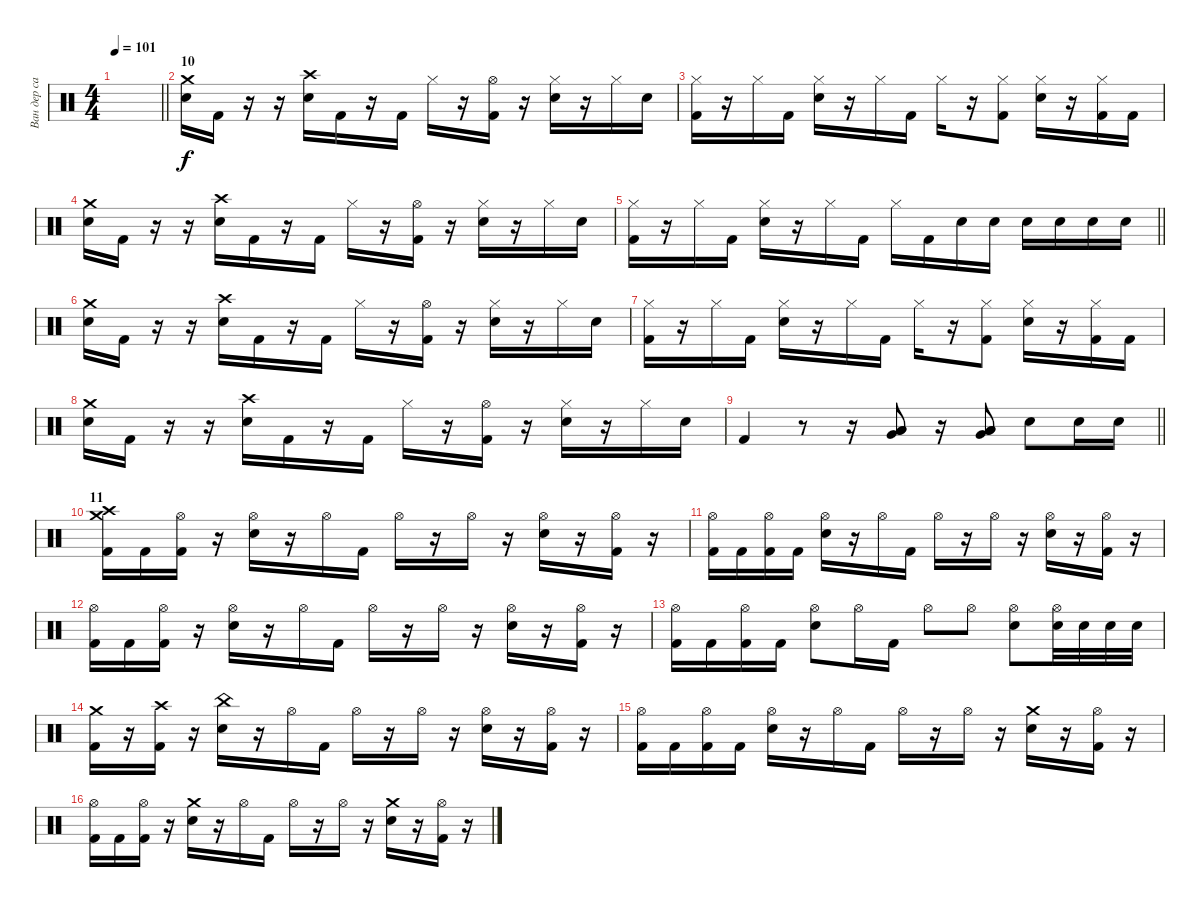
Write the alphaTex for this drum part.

\track ("Ван дер сар" "Ван дер са") {instrument percussion}
\staff {score}
\articulation defaults
\ts (4 4)
\tempo 101
\clef neutral
\barLineRight lightlight
\ks c
|
\section ("" "10")
("Crash medium (hit)" "Snare (hit) 2").16 "Kick (hit) 2".16 r.16 r.16 ("Crash high (hit)" "Snare (hit) 2").16 "Kick (hit) 2".16 r.16 "Kick (hit) 2".16 "Hi-Hat (closed)".16 r.16 ("Hi-Hat (open)" "Kick (hit) 2").16 r.16 ("Hi-Hat (closed)" "Snare (hit) 2").16 r.16 "Hi-Hat (closed)".16 "Snare (hit) 2".16 |
("Hi-Hat (closed)" "Kick (hit) 2").16 r.16 "Hi-Hat (closed)".16 "Kick (hit) 2".16 ("Hi-Hat (closed)" "Snare (hit) 2").16 r.16 "Hi-Hat (closed)".16 "Kick (hit) 2".16 "Hi-Hat (closed)".16 r.16 ("Hi-Hat (closed)" "Kick (hit) 2").8 ("Hi-Hat (closed)" "Snare (hit) 2").16 r.16 ("Hi-Hat (closed)" "Kick (hit) 2").16 "Kick (hit) 2".16 |
("Crash medium (hit)" "Snare (hit) 2").16 "Kick (hit) 2".16 r.16 r.16 ("Crash high (hit)" "Snare (hit) 2").16 "Kick (hit) 2".16 r.16 "Kick (hit) 2".16 "Hi-Hat (closed)".16 r.16 ("Hi-Hat (open)" "Kick (hit) 2").16 r.16 ("Hi-Hat (closed)" "Snare (hit) 2").16 r.16 "Hi-Hat (closed)".16 "Snare (hit) 2".16 |
\barLineRight lightlight
("Hi-Hat (closed)" "Kick (hit) 2").16 r.16 "Hi-Hat (closed)".16 "Kick (hit) 2".16 ("Hi-Hat (closed)" "Snare (hit) 2").16 r.16 "Hi-Hat (closed)".16 "Kick (hit) 2".16 "Hi-Hat (closed)".16 "Kick (hit) 2".16 "Snare (hit) 2".16 "Snare (hit) 2".16 "Snare (hit) 2".16 "Snare (hit) 2".16 "Snare (hit) 2".16 "Snare (hit) 2".16 |
("Crash medium (hit)" "Snare (hit) 2").16 "Kick (hit) 2".16 r.16 r.16 ("Crash high (hit)" "Snare (hit) 2").16 "Kick (hit) 2".16 r.16 "Kick (hit) 2".16 "Hi-Hat (closed)".16 r.16 ("Hi-Hat (open)" "Kick (hit) 2").16 r.16 ("Hi-Hat (closed)" "Snare (hit) 2").16 r.16 "Hi-Hat (closed)".16 "Snare (hit) 2".16 |
("Hi-Hat (closed)" "Kick (hit) 2").16 r.16 "Hi-Hat (closed)".16 "Kick (hit) 2".16 ("Hi-Hat (closed)" "Snare (hit) 2").16 r.16 "Hi-Hat (closed)".16 "Kick (hit) 2".16 "Hi-Hat (closed)".16 r.16 ("Hi-Hat (closed)" "Kick (hit) 2").8 ("Hi-Hat (closed)" "Snare (hit) 2").16 r.16 ("Hi-Hat (closed)" "Kick (hit) 2").16 "Kick (hit) 2".16 |
("Crash medium (hit)" "Snare (hit) 2").16 "Kick (hit) 2".16 r.16 r.16 ("Crash high (hit)" "Snare (hit) 2").16 "Kick (hit) 2".16 r.16 "Kick (hit) 2".16 "Hi-Hat (closed)".16 r.16 ("Hi-Hat (open)" "Kick (hit) 2").16 r.16 ("Hi-Hat (closed)" "Snare (hit) 2").16 r.16 "Hi-Hat (closed)".16 "Snare (hit) 2".16 |
\barLineRight lightlight "Kick (hit) 2".4
r.8 r.16 ("Low Floor Tom (hit)" "Very Low Tom (hit)" "Low Tom (hit)").8 r.16 ("Low Floor Tom (hit)" "Very Low Tom (hit)" "Low Tom (hit)").8 "Snare (hit) 2".8 "Snare (hit) 2".16 "Snare (hit) 2".16 |
\section ("" "11")
("Crash medium (hit)" "Crash high (hit)" "Kick (hit) 2").16 "Kick (hit) 2".16 ("Hi-Hat (open)" "Kick (hit) 2").16 r.16 ("Hi-Hat (open)" "Snare (hit) 2").16 r.16 "Hi-Hat (open)".16 "Kick (hit) 2".16 "Hi-Hat (open)".16 r.16 "Hi-Hat (open)".16 r.16 ("Hi-Hat (open)" "Snare (hit) 2").16 r.16 ("Hi-Hat (open)" "Kick (hit) 2").16 r.16 |
("Hi-Hat (open)" "Kick (hit) 2").16 "Kick (hit) 2".16 ("Hi-Hat (open)" "Kick (hit) 2").16 "Kick (hit) 2".16 ("Hi-Hat (open)" "Snare (hit) 2").16 r.16 "Hi-Hat (open)".16 "Kick (hit) 2".16 "Hi-Hat (open)".16 r.16 "Hi-Hat (open)".16 r.16 ("Hi-Hat (open)" "Snare (hit) 2").16 r.16 ("Hi-Hat (open)" "Kick (hit) 2").16 r.16 |
("Hi-Hat (open)" "Kick (hit) 2").16 "Kick (hit) 2".16 ("Hi-Hat (open)" "Kick (hit) 2").16 r.16 ("Hi-Hat (open)" "Snare (hit) 2").16 r.16 "Hi-Hat (open)".16 "Kick (hit) 2".16 "Hi-Hat (open)".16 r.16 "Hi-Hat (open)".16 r.16 ("Hi-Hat (open)" "Snare (hit) 2").16 r.16 ("Hi-Hat (open)" "Kick (hit) 2").16 r.16 |
("Hi-Hat (open)" "Kick (hit) 2").16 "Kick (hit) 2".16 ("Hi-Hat (open)" "Kick (hit) 2").16 "Kick (hit) 2".16 ("Hi-Hat (open)" "Snare (hit) 2").8 "Hi-Hat (open)".16 "Kick (hit) 2".16 "Hi-Hat (open)".8 "Hi-Hat (open)".8 ("Hi-Hat (open)" "Snare (hit) 2").8 ("Hi-Hat (open)" "Snare (hit) 2").32 "Snare (hit) 2".32 "Snare (hit) 2".32 "Snare (hit) 2".32 |
("Crash medium (hit)" "Kick (hit) 2").16 r.16 ("Crash high (hit)" "Kick (hit) 2").16 r.16 ("China (hit)" "Snare (hit) 2").16 r.16 "Hi-Hat (open)".16 "Kick (hit) 2".16 "Hi-Hat (open)".16 r.16 "Hi-Hat (open)".16 r.16 ("Hi-Hat (open)" "Snare (hit) 2").16 r.16 ("Hi-Hat (open)" "Kick (hit) 2").16 r.16 |
("Hi-Hat (open)" "Kick (hit) 2").16 "Kick (hit) 2".16 ("Hi-Hat (open)" "Kick (hit) 2").16 "Kick (hit) 2".16 ("Hi-Hat (open)" "Snare (hit) 2").16 r.16 "Hi-Hat (open)".16 "Kick (hit) 2".16 "Hi-Hat (open)".16 r.16 "Hi-Hat (open)".16 r.16 ("Crash medium (hit)" "Snare (hit) 2").16 r.16 ("Hi-Hat (open)" "Kick (hit) 2").16 r.16 |
("Hi-Hat (open)" "Kick (hit) 2").16 "Kick (hit) 2".16 ("Hi-Hat (open)" "Kick (hit) 2").16 r.16 ("Crash medium (hit)" "Snare (hit) 2").16 r.16 "Hi-Hat (open)".16 "Kick (hit) 2".16 "Hi-Hat (open)".16 r.16 "Hi-Hat (open)".16 r.16 ("Crash medium (hit)" "Snare (hit) 2").16 r.16 ("Hi-Hat (open)" "Kick (hit) 2").16 r.16
